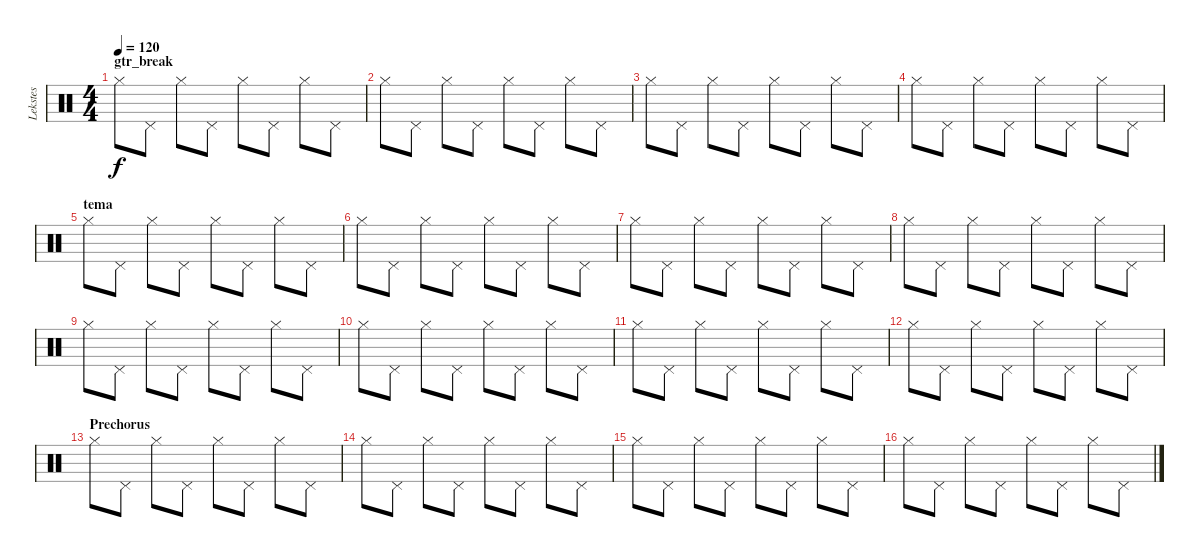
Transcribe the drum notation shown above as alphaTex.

\track ("Lekstes" "Lekstes") {instrument percussion}
\staff {score}
\articulation defaults
\ts (4 4)
\section ("" "gtr_break")
\tempo 120
\clef neutral
\ks c "Hi-Hat (closed)".8{dy f} "Pedal Hi-Hat (hit)".8 "Hi-Hat (closed)".8 "Pedal Hi-Hat (hit)".8 "Hi-Hat (closed)".8 "Pedal Hi-Hat (hit)".8 "Hi-Hat (closed)".8 "Pedal Hi-Hat (hit)".8
|
"Hi-Hat (closed)".8 "Pedal Hi-Hat (hit)".8 "Hi-Hat (closed)".8 "Pedal Hi-Hat (hit)".8 "Hi-Hat (closed)".8 "Pedal Hi-Hat (hit)".8 "Hi-Hat (closed)".8 "Pedal Hi-Hat (hit)".8 |
"Hi-Hat (closed)".8 "Pedal Hi-Hat (hit)".8 "Hi-Hat (closed)".8 "Pedal Hi-Hat (hit)".8 "Hi-Hat (closed)".8 "Pedal Hi-Hat (hit)".8 "Hi-Hat (closed)".8 "Pedal Hi-Hat (hit)".8 |
"Hi-Hat (closed)".8 "Pedal Hi-Hat (hit)".8 "Hi-Hat (closed)".8 "Pedal Hi-Hat (hit)".8 "Hi-Hat (closed)".8 "Pedal Hi-Hat (hit)".8 "Hi-Hat (closed)".8 "Pedal Hi-Hat (hit)".8 |
\section ("" "tema")
"Hi-Hat (closed)".8 "Pedal Hi-Hat (hit)".8 "Hi-Hat (closed)".8 "Pedal Hi-Hat (hit)".8 "Hi-Hat (closed)".8 "Pedal Hi-Hat (hit)".8 "Hi-Hat (closed)".8 "Pedal Hi-Hat (hit)".8 |
"Hi-Hat (closed)".8 "Pedal Hi-Hat (hit)".8 "Hi-Hat (closed)".8 "Pedal Hi-Hat (hit)".8 "Hi-Hat (closed)".8 "Pedal Hi-Hat (hit)".8 "Hi-Hat (closed)".8 "Pedal Hi-Hat (hit)".8 |
"Hi-Hat (closed)".8 "Pedal Hi-Hat (hit)".8 "Hi-Hat (closed)".8 "Pedal Hi-Hat (hit)".8 "Hi-Hat (closed)".8 "Pedal Hi-Hat (hit)".8 "Hi-Hat (closed)".8 "Pedal Hi-Hat (hit)".8 |
"Hi-Hat (closed)".8 "Pedal Hi-Hat (hit)".8 "Hi-Hat (closed)".8 "Pedal Hi-Hat (hit)".8 "Hi-Hat (closed)".8 "Pedal Hi-Hat (hit)".8 "Hi-Hat (closed)".8 "Pedal Hi-Hat (hit)".8 |
"Hi-Hat (closed)".8 "Pedal Hi-Hat (hit)".8 "Hi-Hat (closed)".8 "Pedal Hi-Hat (hit)".8 "Hi-Hat (closed)".8 "Pedal Hi-Hat (hit)".8 "Hi-Hat (closed)".8 "Pedal Hi-Hat (hit)".8 |
"Hi-Hat (closed)".8 "Pedal Hi-Hat (hit)".8 "Hi-Hat (closed)".8 "Pedal Hi-Hat (hit)".8 "Hi-Hat (closed)".8 "Pedal Hi-Hat (hit)".8 "Hi-Hat (closed)".8 "Pedal Hi-Hat (hit)".8 |
"Hi-Hat (closed)".8 "Pedal Hi-Hat (hit)".8 "Hi-Hat (closed)".8 "Pedal Hi-Hat (hit)".8 "Hi-Hat (closed)".8 "Pedal Hi-Hat (hit)".8 "Hi-Hat (closed)".8 "Pedal Hi-Hat (hit)".8 |
"Hi-Hat (closed)".8 "Pedal Hi-Hat (hit)".8 "Hi-Hat (closed)".8 "Pedal Hi-Hat (hit)".8 "Hi-Hat (closed)".8 "Pedal Hi-Hat (hit)".8 "Hi-Hat (closed)".8 "Pedal Hi-Hat (hit)".8 |
\section ("" "Prechorus")
"Hi-Hat (closed)".8 "Pedal Hi-Hat (hit)".8 "Hi-Hat (closed)".8 "Pedal Hi-Hat (hit)".8 "Hi-Hat (closed)".8 "Pedal Hi-Hat (hit)".8 "Hi-Hat (closed)".8 "Pedal Hi-Hat (hit)".8 |
"Hi-Hat (closed)".8 "Pedal Hi-Hat (hit)".8 "Hi-Hat (closed)".8 "Pedal Hi-Hat (hit)".8 "Hi-Hat (closed)".8 "Pedal Hi-Hat (hit)".8 "Hi-Hat (closed)".8 "Pedal Hi-Hat (hit)".8 |
"Hi-Hat (closed)".8 "Pedal Hi-Hat (hit)".8 "Hi-Hat (closed)".8 "Pedal Hi-Hat (hit)".8 "Hi-Hat (closed)".8 "Pedal Hi-Hat (hit)".8 "Hi-Hat (closed)".8 "Pedal Hi-Hat (hit)".8 |
"Hi-Hat (closed)".8 "Pedal Hi-Hat (hit)".8 "Hi-Hat (closed)".8 "Pedal Hi-Hat (hit)".8 "Hi-Hat (closed)".8 "Pedal Hi-Hat (hit)".8 "Hi-Hat (closed)".8 "Pedal Hi-Hat (hit)".8
